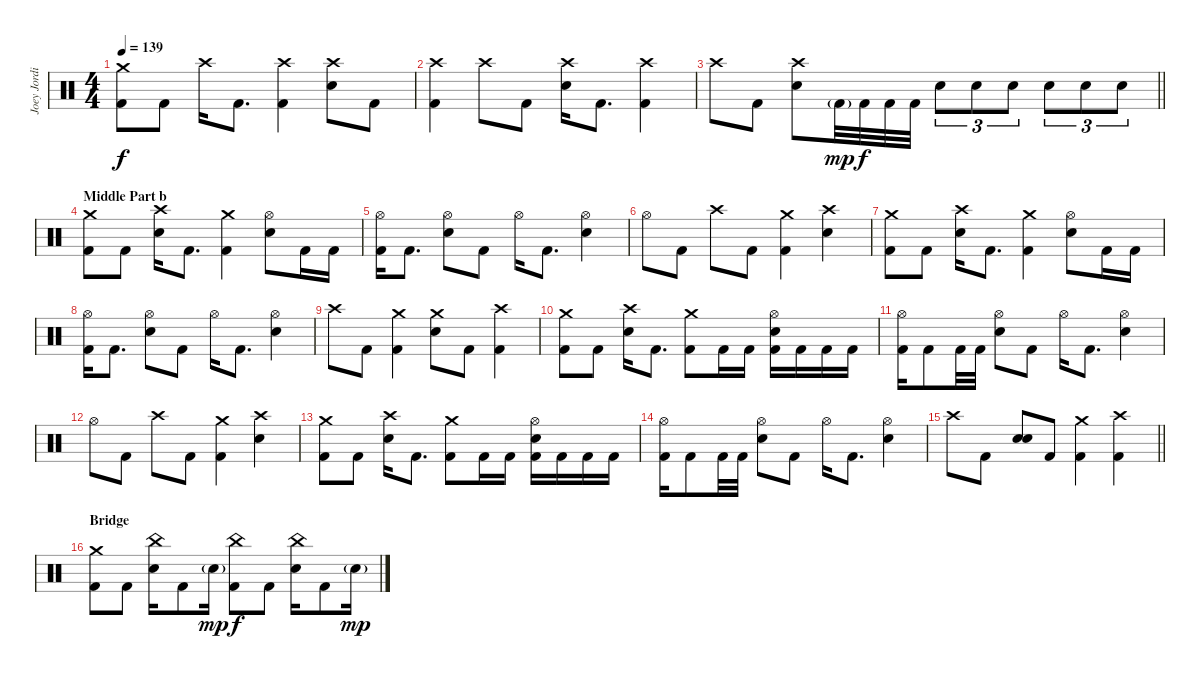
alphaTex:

\track ("Joey Jordison" "Joey Jordi") {instrument percussion}
\staff {score}
\articulation defaults
\ts (4 4)
\tempo 139
\clef neutral
\ks c
("Crash medium (hit)" "Kick (hit) 2").8{dy f} "Kick (hit) 2".8 "Crash high (hit)".16 "Kick (hit) 2".8{d} ("Crash high (hit)" "Kick (hit) 2").4 ("Crash high (hit)" "Electric Snare (hit)").8 "Kick (hit) 2".8 |
("Crash high (hit)" "Kick (hit) 2").4 "Crash high (hit)".8 "Kick (hit) 2".8 ("Crash high (hit)" "Electric Snare (hit)").16 "Kick (hit) 2".8{d} ("Crash high (hit)" "Kick (hit) 2").4 |
\barLineRight lightlight "Crash high (hit)".8 "Kick (hit) 2".8
("Crash high (hit)" "Electric Snare (hit)").8 "Kick (hit) 2"{g}.32{dy mp} "Kick (hit) 2".32{dy f} "Kick (hit) 2".32 "Kick (hit) 2".32 "Electric Snare (hit)".8{tu (3 2)} "Electric Snare (hit)".8{tu (3 2)} "Electric Snare (hit)".8{tu (3 2)} "Electric Snare (hit)".8{tu (3 2)} "Electric Snare (hit)".8{tu (3 2)} "Electric Snare (hit)".8{tu (3 2)} |
\section ("" "Middle Part b")
("Crash medium (hit)" "Kick (hit) 2").8 "Kick (hit) 2".8 ("Crash high (hit)" "Electric Snare (hit)").16 "Kick (hit) 2".8{d} ("Crash medium (hit)" "Kick (hit) 2").4 ("Hi-Hat (open)" "Electric Snare (hit)").8 "Kick (hit) 2".16 "Kick (hit) 2".16 |
("Hi-Hat (open)" "Kick (hit) 2").16 "Kick (hit) 2".8{d} ("Hi-Hat (open)" "Electric Snare (hit)").8 "Kick (hit) 2".8 "Hi-Hat (open)".16 "Kick (hit) 2".8{d} ("Hi-Hat (open)" "Electric Snare (hit)").4 |
"Hi-Hat (open)".8 "Kick (hit) 2".8 "Crash high (hit)".8 "Kick (hit) 2".8 ("Crash medium (hit)" "Kick (hit) 2").4 ("Crash high (hit)" "Electric Snare (hit)").4 |
("Crash medium (hit)" "Kick (hit) 2").8 "Kick (hit) 2".8 ("Crash high (hit)" "Electric Snare (hit)").16 "Kick (hit) 2".8{d} ("Crash medium (hit)" "Kick (hit) 2").4 ("Hi-Hat (open)" "Electric Snare (hit)").8 "Kick (hit) 2".16 "Kick (hit) 2".16 |
("Hi-Hat (open)" "Kick (hit) 2").16 "Kick (hit) 2".8{d} ("Hi-Hat (open)" "Electric Snare (hit)").8 "Kick (hit) 2".8 "Hi-Hat (open)".16 "Kick (hit) 2".8{d} ("Hi-Hat (open)" "Electric Snare (hit)").4 |
"Crash high (hit)".8 "Kick (hit) 2".8 ("Crash medium (hit)" "Kick (hit) 2").4 ("Crash medium (hit)" "Electric Snare (hit)").8 "Kick (hit) 2".8 ("Crash high (hit)" "Kick (hit) 2").4 |
("Crash medium (hit)" "Kick (hit) 2").8 "Kick (hit) 2".8 ("Crash high (hit)" "Electric Snare (hit)").16 "Kick (hit) 2".8{d} ("Crash medium (hit)" "Kick (hit) 2").8 "Kick (hit) 2".16 "Kick (hit) 2".16 ("Hi-Hat (open)" "Electric Snare (hit)" "Kick (hit) 2").16 "Kick (hit) 2".16 "Kick (hit) 2".16 "Kick (hit) 2".16 |
("Hi-Hat (open)" "Kick (hit) 2").16 "Kick (hit) 2".8 "Kick (hit) 2".32 "Kick (hit) 2".32 ("Hi-Hat (open)" "Electric Snare (hit)").8 "Kick (hit) 2".8 "Hi-Hat (open)".16 "Kick (hit) 2".8{d} ("Hi-Hat (open)" "Electric Snare (hit)").4 |
"Hi-Hat (open)".8 "Kick (hit) 2".8 "Crash high (hit)".8 "Kick (hit) 2".8 ("Crash medium (hit)" "Kick (hit) 2").4 ("Crash high (hit)" "Electric Snare (hit)").4 |
("Crash medium (hit)" "Kick (hit) 2").8 "Kick (hit) 2".8 ("Crash high (hit)" "Electric Snare (hit)").16 "Kick (hit) 2".8{d} ("Crash medium (hit)" "Kick (hit) 2").8 "Kick (hit) 2".16 "Kick (hit) 2".16 ("Hi-Hat (open)" "Electric Snare (hit)" "Kick (hit) 2").16 "Kick (hit) 2".16 "Kick (hit) 2".16 "Kick (hit) 2".16 |
("Hi-Hat (open)" "Kick (hit) 2").16 "Kick (hit) 2".8 "Kick (hit) 2".32 "Kick (hit) 2".32 ("Hi-Hat (open)" "Electric Snare (hit)").8 "Kick (hit) 2".8 "Hi-Hat (open)".16 "Kick (hit) 2".8{d} ("Hi-Hat (open)" "Electric Snare (hit)").4 |
\barLineRight lightlight "Crash high (hit)".8 "Kick (hit) 2".8
("Electric Snare (hit)" "Electric Snare (hit)").8{bd 240} "Kick (hit) 2".8 ("Crash medium (hit)" "Kick (hit) 2").4 ("Crash high (hit)" "Kick (hit) 2").4 |
\section ("" "Bridge")
("Crash medium (hit)" "Kick (hit) 2").8 "Kick (hit) 2".8 ("China (hit)" "Electric Snare (hit)").16 "Kick (hit) 2".8 "Electric Snare (hit)"{g}.16{dy mp} ("China (hit)" "Kick (hit) 2").8{dy f} "Kick (hit) 2".8 ("China (hit)" "Electric Snare (hit)").16 "Kick (hit) 2".8 "Electric Snare (hit)"{g}.16{dy mp}
